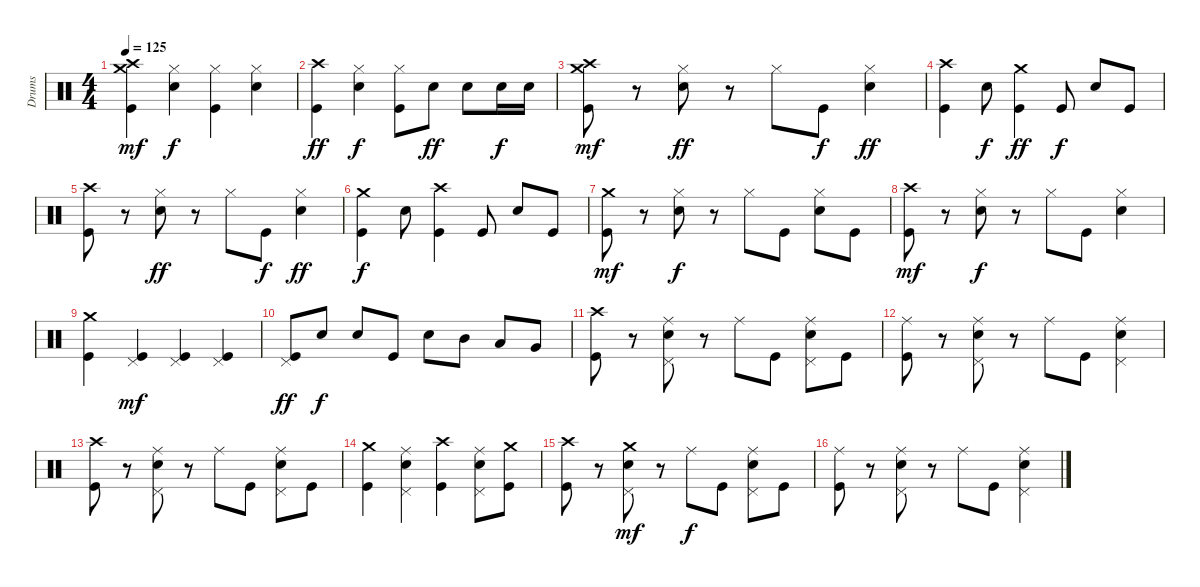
\track ("Drums" "Drums") {instrument percussion}
\staff {score}
\articulation defaults
\ts (4 4)
\tempo 125
\clef neutral
\ks c
("Crash high (hit)" "Kick (hit)" "Crash medium (hit)").4{dy mf} ("Snare (hit) 2" "Hi-Hat (closed)").4{dy f} ("Kick (hit)" "Hi-Hat (closed)").4 ("Snare (hit) 2" "Hi-Hat (closed)").4 |
("Crash high (hit)" "Kick (hit)").4{dy ff} ("Snare (hit) 2" "Hi-Hat (closed)").4{dy f} ("Kick (hit)" "Hi-Hat (closed)").8 "Snare (hit) 2".8{dy ff} "Snare (hit) 2".8 "Snare (hit) 2".16{dy f} "Snare (hit) 2".16 |
("Kick (hit)" "Crash high (hit)" "Crash medium (hit)").8{dy mf} r.8 ("Snare (hit) 2" "Hi-Hat (closed)").8{dy ff} r.8 "Hi-Hat (closed)".8 "Kick (hit)".8{dy f} ("Snare (hit) 2" "Hi-Hat (closed)").4{dy ff} |
("Crash high (hit)" "Kick (hit)").4 "Snare (hit) 2".8{dy f} ("Crash medium (hit)" "Kick (hit)").4{dy ff} "Kick (hit)".8{dy f} "Snare (hit) 2".8 "Kick (hit)".8 |
("Kick (hit)" "Crash high (hit)").8 r.8 ("Snare (hit) 2" "Hi-Hat (closed)").8{dy ff} r.8 "Hi-Hat (closed)".8 "Kick (hit)".8{dy f} ("Snare (hit) 2" "Hi-Hat (closed)").4{dy ff} |
("Crash medium (hit)" "Kick (hit)").4{dy f} "Snare (hit) 2".8 ("Crash high (hit)" "Kick (hit)").4 "Kick (hit)".8 "Snare (hit) 2".8 "Kick (hit)".8 |
("Kick (hit)" "Crash medium (hit)").8{dy mf} r.8 ("Snare (hit) 2" "Hi-Hat (closed)").8{dy f} r.8 "Hi-Hat (closed)".8 "Kick (hit)".8 ("Snare (hit) 2" "Hi-Hat (closed)").8 "Kick (hit)".8 |
("Kick (hit)" "Crash high (hit)").8{dy mf} r.8 ("Snare (hit) 2" "Hi-Hat (closed)").8{dy f} r.8 "Hi-Hat (closed)".8 "Kick (hit)".8 ("Snare (hit) 2" "Hi-Hat (closed)").4 |
("Crash medium (hit)" "Kick (hit)").4 ("Kick (hit)" "Pedal Hi-Hat (hit)").4{dy mf} ("Kick (hit)" "Pedal Hi-Hat (hit)").4 ("Kick (hit)" "Pedal Hi-Hat (hit)").4 |
("Kick (hit)" "Pedal Hi-Hat (hit)").8{dy ff} "Snare (hit) 2".8{dy f} "Snare (hit) 2".8 "Kick (hit)".8 "Snare (hit) 2".8 "Mid Tom (hit)".8 "Low Tom (hit)".8 "Very Low Tom (hit)".8 |
("Crash high (hit)" "Kick (hit)").8 r.8 ("Snare (hit) 2" "Ride (middle)" "Pedal Hi-Hat (hit)").8 r.8 "Ride (middle)".8 "Kick (hit)".8 ("Snare (hit) 2" "Ride (middle)" "Pedal Hi-Hat (hit)").8 "Kick (hit)".8 |
("Kick (hit)" "Ride (middle)").8 r.8 ("Snare (hit) 2" "Ride (middle)" "Pedal Hi-Hat (hit)").8 r.8 "Ride (middle)".8 "Kick (hit)".8 ("Snare (hit) 2" "Ride (middle)" "Pedal Hi-Hat (hit)").4 |
("Crash high (hit)" "Kick (hit)").8 r.8 ("Snare (hit) 2" "Ride (middle)" "Pedal Hi-Hat (hit)").8 r.8 "Ride (middle)".8 "Kick (hit)".8 ("Snare (hit) 2" "Ride (middle)" "Pedal Hi-Hat (hit)").8 "Kick (hit)".8 |
("Kick (hit)" "Crash medium (hit)").4 ("Snare (hit) 2" "Pedal Hi-Hat (hit)" "Ride (middle)").4 ("Crash high (hit)" "Kick (hit)").4 ("Snare (hit) 2" "Pedal Hi-Hat (hit)" "Ride (middle)").8 ("Crash medium (hit)" "Kick (hit)").8 |
("Crash high (hit)" "Kick (hit)").8 r.8 ("Snare (hit) 2" "Crash medium (hit)" "Pedal Hi-Hat (hit)").8{dy mf} r.8 "Ride (middle)".8{dy f} "Kick (hit)".8 ("Snare (hit) 2" "Ride (middle)" "Pedal Hi-Hat (hit)").8 "Kick (hit)".8 |
("Kick (hit)" "Ride (middle)").8 r.8 ("Snare (hit) 2" "Ride (middle)" "Pedal Hi-Hat (hit)").8 r.8 "Ride (middle)".8 "Kick (hit)".8 ("Snare (hit) 2" "Ride (middle)" "Pedal Hi-Hat (hit)").4
